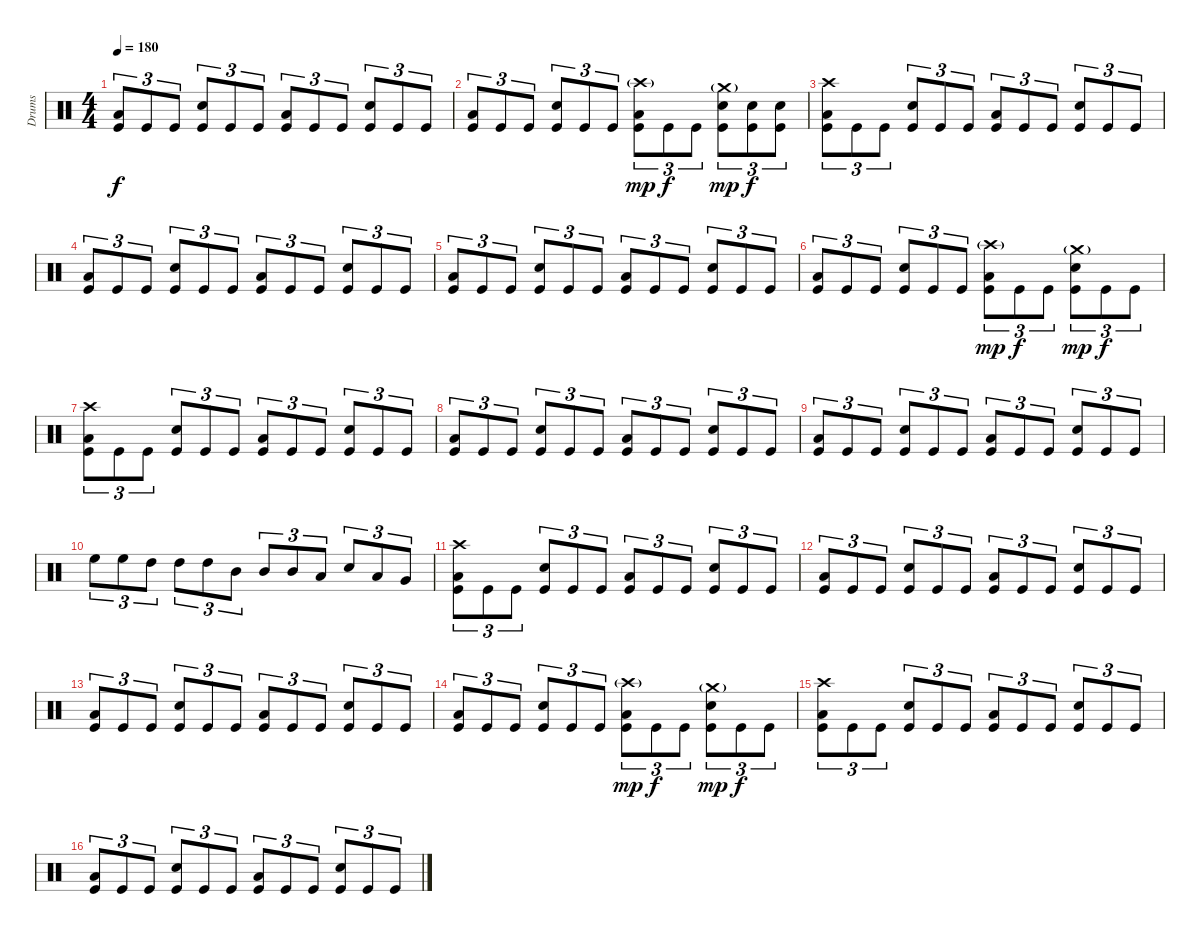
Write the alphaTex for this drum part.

\track ("Drums" "Drums") {instrument percussion}
\staff {score}
\articulation defaults
\ts (4 4)
\tempo 180
\clef neutral
\ks c
("Low Tom (hit)" "Kick (hit)").8{tu (3 2) dy f} "Kick (hit)".8{tu (3 2)} "Kick (hit)".8{tu (3 2)} ("Snare (hit) 2" "Kick (hit)").8{tu (3 2)} "Kick (hit)".8{tu (3 2)} "Kick (hit)".8{tu (3 2)} ("Low Tom (hit)" "Kick (hit)").8{tu (3 2)} "Kick (hit)".8{tu (3 2)} "Kick (hit)".8{tu (3 2)} ("Snare (hit) 2" "Kick (hit)").8{tu (3 2)} "Kick (hit)".8{tu (3 2)} "Kick (hit)".8{tu (3 2)} |
("Low Tom (hit)" "Kick (hit)").8{tu (3 2)} "Kick (hit)".8{tu (3 2)} "Kick (hit)".8{tu (3 2)} ("Snare (hit) 2" "Kick (hit)").8{tu (3 2)} "Kick (hit)".8{tu (3 2)} "Kick (hit)".8{tu (3 2)} ("Crash high (hit)"{g} "Low Tom (hit)" "Kick (hit)").8{tu (3 2) dy mp} "Kick (hit)".8{tu (3 2) dy f} "Kick (hit)".8{tu (3 2)} ("Crash medium (hit)"{g} "Snare (hit) 2" "Kick (hit)").8{tu (3 2) dy mp} ("Snare (hit) 2" "Kick (hit)").8{tu (3 2) dy f} ("Snare (hit) 2" "Kick (hit)").8{tu (3 2)} |
("Crash high (hit)" "Low Tom (hit)" "Kick (hit)").8{tu (3 2)} "Kick (hit)".8{tu (3 2)} "Kick (hit)".8{tu (3 2)} ("Snare (hit) 2" "Kick (hit)").8{tu (3 2)} "Kick (hit)".8{tu (3 2)} "Kick (hit)".8{tu (3 2)} ("Low Tom (hit)" "Kick (hit)").8{tu (3 2)} "Kick (hit)".8{tu (3 2)} "Kick (hit)".8{tu (3 2)} ("Snare (hit) 2" "Kick (hit)").8{tu (3 2)} "Kick (hit)".8{tu (3 2)} "Kick (hit)".8{tu (3 2)} |
("Low Tom (hit)" "Kick (hit)").8{tu (3 2)} "Kick (hit)".8{tu (3 2)} "Kick (hit)".8{tu (3 2)} ("Snare (hit) 2" "Kick (hit)").8{tu (3 2)} "Kick (hit)".8{tu (3 2)} "Kick (hit)".8{tu (3 2)} ("Low Tom (hit)" "Kick (hit)").8{tu (3 2)} "Kick (hit)".8{tu (3 2)} "Kick (hit)".8{tu (3 2)} ("Snare (hit) 2" "Kick (hit)").8{tu (3 2)} "Kick (hit)".8{tu (3 2)} "Kick (hit)".8{tu (3 2)} |
("Low Tom (hit)" "Kick (hit)").8{tu (3 2)} "Kick (hit)".8{tu (3 2)} "Kick (hit)".8{tu (3 2)} ("Snare (hit) 2" "Kick (hit)").8{tu (3 2)} "Kick (hit)".8{tu (3 2)} "Kick (hit)".8{tu (3 2)} ("Low Tom (hit)" "Kick (hit)").8{tu (3 2)} "Kick (hit)".8{tu (3 2)} "Kick (hit)".8{tu (3 2)} ("Snare (hit) 2" "Kick (hit)").8{tu (3 2)} "Kick (hit)".8{tu (3 2)} "Kick (hit)".8{tu (3 2)} |
("Low Tom (hit)" "Kick (hit)").8{tu (3 2)} "Kick (hit)".8{tu (3 2)} "Kick (hit)".8{tu (3 2)} ("Snare (hit) 2" "Kick (hit)").8{tu (3 2)} "Kick (hit)".8{tu (3 2)} "Kick (hit)".8{tu (3 2)} ("Crash high (hit)"{g} "Low Tom (hit)" "Kick (hit)").8{tu (3 2) dy mp} "Kick (hit)".8{tu (3 2) dy f} "Kick (hit)".8{tu (3 2)} ("Crash medium (hit)"{g} "Snare (hit) 2" "Kick (hit)").8{tu (3 2) dy mp} "Kick (hit)".8{tu (3 2) dy f} "Kick (hit)".8{tu (3 2)} |
("Crash high (hit)" "Low Tom (hit)" "Kick (hit)").8{tu (3 2)} "Kick (hit)".8{tu (3 2)} "Kick (hit)".8{tu (3 2)} ("Snare (hit) 2" "Kick (hit)").8{tu (3 2)} "Kick (hit)".8{tu (3 2)} "Kick (hit)".8{tu (3 2)} ("Low Tom (hit)" "Kick (hit)").8{tu (3 2)} "Kick (hit)".8{tu (3 2)} "Kick (hit)".8{tu (3 2)} ("Snare (hit) 2" "Kick (hit)").8{tu (3 2)} "Kick (hit)".8{tu (3 2)} "Kick (hit)".8{tu (3 2)} |
("Low Tom (hit)" "Kick (hit)").8{tu (3 2)} "Kick (hit)".8{tu (3 2)} "Kick (hit)".8{tu (3 2)} ("Snare (hit) 2" "Kick (hit)").8{tu (3 2)} "Kick (hit)".8{tu (3 2)} "Kick (hit)".8{tu (3 2)} ("Low Tom (hit)" "Kick (hit)").8{tu (3 2)} "Kick (hit)".8{tu (3 2)} "Kick (hit)".8{tu (3 2)} ("Snare (hit) 2" "Kick (hit)").8{tu (3 2)} "Kick (hit)".8{tu (3 2)} "Kick (hit)".8{tu (3 2)} |
("Low Tom (hit)" "Kick (hit)").8{tu (3 2)} "Kick (hit)".8{tu (3 2)} "Kick (hit)".8{tu (3 2)} ("Snare (hit) 2" "Kick (hit)").8{tu (3 2)} "Kick (hit)".8{tu (3 2)} "Kick (hit)".8{tu (3 2)} ("Low Tom (hit)" "Kick (hit)").8{tu (3 2)} "Kick (hit)".8{tu (3 2)} "Kick (hit)".8{tu (3 2)} ("Snare (hit) 2" "Kick (hit)").8{tu (3 2)} "Kick (hit)".8{tu (3 2)} "Kick (hit)".8{tu (3 2)} |
"High Floor Tom (hit)".8{tu (3 2)} "High Floor Tom (hit)".8{tu (3 2)} "High Tom (hit)".8{tu (3 2)} "High Tom (hit)".8{tu (3 2)} "High Tom (hit)".8{tu (3 2)} "Mid Tom (hit)".8{tu (3 2)} "Mid Tom (hit)".8{tu (3 2)} "Mid Tom (hit)".8{tu (3 2)} "Low Tom (hit)".8{tu (3 2)} "Snare (hit) 2".8{tu (3 2)} "Low Tom (hit)".8{tu (3 2)} "Very Low Tom (hit)".8{tu (3 2)} |
("Crash high (hit)" "Low Tom (hit)" "Kick (hit)").8{tu (3 2)} "Kick (hit)".8{tu (3 2)} "Kick (hit)".8{tu (3 2)} ("Snare (hit) 2" "Kick (hit)").8{tu (3 2)} "Kick (hit)".8{tu (3 2)} "Kick (hit)".8{tu (3 2)} ("Low Tom (hit)" "Kick (hit)").8{tu (3 2)} "Kick (hit)".8{tu (3 2)} "Kick (hit)".8{tu (3 2)} ("Snare (hit) 2" "Kick (hit)").8{tu (3 2)} "Kick (hit)".8{tu (3 2)} "Kick (hit)".8{tu (3 2)} |
("Low Tom (hit)" "Kick (hit)").8{tu (3 2)} "Kick (hit)".8{tu (3 2)} "Kick (hit)".8{tu (3 2)} ("Snare (hit) 2" "Kick (hit)").8{tu (3 2)} "Kick (hit)".8{tu (3 2)} "Kick (hit)".8{tu (3 2)} ("Low Tom (hit)" "Kick (hit)").8{tu (3 2)} "Kick (hit)".8{tu (3 2)} "Kick (hit)".8{tu (3 2)} ("Snare (hit) 2" "Kick (hit)").8{tu (3 2)} "Kick (hit)".8{tu (3 2)} "Kick (hit)".8{tu (3 2)} |
("Low Tom (hit)" "Kick (hit)").8{tu (3 2)} "Kick (hit)".8{tu (3 2)} "Kick (hit)".8{tu (3 2)} ("Snare (hit) 2" "Kick (hit)").8{tu (3 2)} "Kick (hit)".8{tu (3 2)} "Kick (hit)".8{tu (3 2)} ("Low Tom (hit)" "Kick (hit)").8{tu (3 2)} "Kick (hit)".8{tu (3 2)} "Kick (hit)".8{tu (3 2)} ("Snare (hit) 2" "Kick (hit)").8{tu (3 2)} "Kick (hit)".8{tu (3 2)} "Kick (hit)".8{tu (3 2)} |
("Low Tom (hit)" "Kick (hit)").8{tu (3 2)} "Kick (hit)".8{tu (3 2)} "Kick (hit)".8{tu (3 2)} ("Snare (hit) 2" "Kick (hit)").8{tu (3 2)} "Kick (hit)".8{tu (3 2)} "Kick (hit)".8{tu (3 2)} ("Crash high (hit)"{g} "Low Tom (hit)" "Kick (hit)").8{tu (3 2) dy mp} "Kick (hit)".8{tu (3 2) dy f} "Kick (hit)".8{tu (3 2)} ("Crash medium (hit)"{g} "Snare (hit) 2" "Kick (hit)").8{tu (3 2) dy mp} "Kick (hit)".8{tu (3 2) dy f} "Kick (hit)".8{tu (3 2)} |
("Crash high (hit)" "Low Tom (hit)" "Kick (hit)").8{tu (3 2)} "Kick (hit)".8{tu (3 2)} "Kick (hit)".8{tu (3 2)} ("Snare (hit) 2" "Kick (hit)").8{tu (3 2)} "Kick (hit)".8{tu (3 2)} "Kick (hit)".8{tu (3 2)} ("Low Tom (hit)" "Kick (hit)").8{tu (3 2)} "Kick (hit)".8{tu (3 2)} "Kick (hit)".8{tu (3 2)} ("Snare (hit) 2" "Kick (hit)").8{tu (3 2)} "Kick (hit)".8{tu (3 2)} "Kick (hit)".8{tu (3 2)} |
("Low Tom (hit)" "Kick (hit)").8{tu (3 2)} "Kick (hit)".8{tu (3 2)} "Kick (hit)".8{tu (3 2)} ("Snare (hit) 2" "Kick (hit)").8{tu (3 2)} "Kick (hit)".8{tu (3 2)} "Kick (hit)".8{tu (3 2)} ("Low Tom (hit)" "Kick (hit)").8{tu (3 2)} "Kick (hit)".8{tu (3 2)} "Kick (hit)".8{tu (3 2)} ("Snare (hit) 2" "Kick (hit)").8{tu (3 2)} "Kick (hit)".8{tu (3 2)} "Kick (hit)".8{tu (3 2)}
